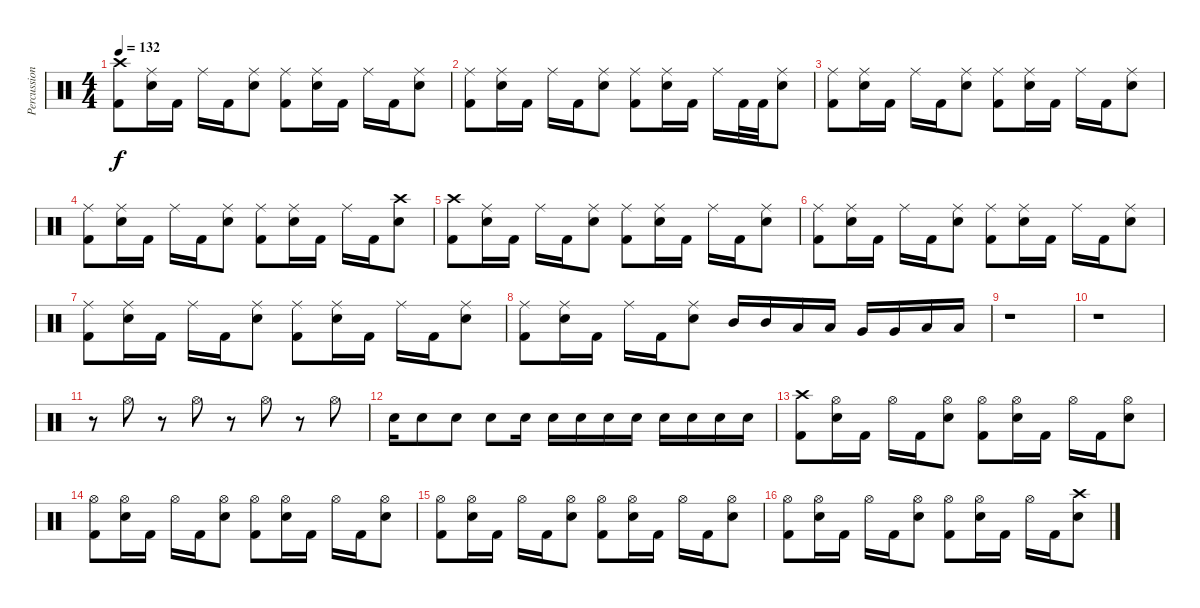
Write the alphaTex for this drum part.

\track ("Percussion" "Percussion") {instrument percussion}
\staff {score}
\articulation defaults
\ts (4 4)
\tempo 132
\clef neutral
\ks c
("Crash high (hit)" "Kick (hit) 2").8{dy f} ("Ride (middle)" "Snare (hit) 2").16 "Kick (hit) 2".16 "Ride (middle)".16 "Kick (hit) 2".16 ("Ride (middle)" "Snare (hit) 2").8 ("Ride (middle)" "Kick (hit) 2").8 ("Ride (middle)" "Snare (hit) 2").16 "Kick (hit) 2".16 "Ride (middle)".16 "Kick (hit) 2".16 ("Ride (middle)" "Snare (hit) 2").8 |
("Ride (middle)" "Kick (hit) 2").8 ("Ride (middle)" "Snare (hit) 2").16 "Kick (hit) 2".16 "Ride (middle)".16 "Kick (hit) 2".16 ("Ride (middle)" "Snare (hit) 2").8 ("Ride (middle)" "Kick (hit) 2").8 ("Ride (middle)" "Snare (hit) 2").16 "Kick (hit) 2".16 "Ride (middle)".16 "Kick (hit) 2".32 "Kick (hit) 2".32 ("Ride (middle)" "Snare (hit) 2").8 |
("Ride (middle)" "Kick (hit) 2").8 ("Ride (middle)" "Snare (hit) 2").16 "Kick (hit) 2".16 "Ride (middle)".16 "Kick (hit) 2".16 ("Ride (middle)" "Snare (hit) 2").8 ("Ride (middle)" "Kick (hit) 2").8 ("Ride (middle)" "Snare (hit) 2").16 "Kick (hit) 2".16 "Ride (middle)".16 "Kick (hit) 2".16 ("Ride (middle)" "Snare (hit) 2").8 |
("Ride (middle)" "Kick (hit) 2").8 ("Ride (middle)" "Snare (hit) 2").16 "Kick (hit) 2".16 "Ride (middle)".16 "Kick (hit) 2".16 ("Ride (middle)" "Snare (hit) 2").8 ("Ride (middle)" "Kick (hit) 2").8 ("Ride (middle)" "Snare (hit) 2").16 "Kick (hit) 2".16 "Ride (middle)".16 "Kick (hit) 2".16 ("Crash high (hit)" "Snare (hit) 2").8 |
("Crash high (hit)" "Kick (hit) 2").8 ("Ride (middle)" "Snare (hit) 2").16 "Kick (hit) 2".16 "Ride (middle)".16 "Kick (hit) 2".16 ("Ride (middle)" "Snare (hit) 2").8 ("Ride (middle)" "Kick (hit) 2").8 ("Ride (middle)" "Snare (hit) 2").16 "Kick (hit) 2".16 "Ride (middle)".16 "Kick (hit) 2".16 ("Ride (middle)" "Snare (hit) 2").8 |
("Ride (middle)" "Kick (hit) 2").8 ("Ride (middle)" "Snare (hit) 2").16 "Kick (hit) 2".16 "Ride (middle)".16 "Kick (hit) 2".16 ("Ride (middle)" "Snare (hit) 2").8 ("Ride (middle)" "Kick (hit) 2").8 ("Ride (middle)" "Snare (hit) 2").16 "Kick (hit) 2".16 "Ride (middle)".16 "Kick (hit) 2".16 ("Ride (middle)" "Snare (hit) 2").8 |
("Ride (middle)" "Kick (hit) 2").8 ("Ride (middle)" "Snare (hit) 2").16 "Kick (hit) 2".16 "Ride (middle)".16 "Kick (hit) 2".16 ("Ride (middle)" "Snare (hit) 2").8 ("Ride (middle)" "Kick (hit) 2").8 ("Ride (middle)" "Snare (hit) 2").16 "Kick (hit) 2".16 "Ride (middle)".16 "Kick (hit) 2".16 ("Ride (middle)" "Snare (hit) 2").8 |
("Ride (middle)" "Kick (hit) 2").8 ("Ride (middle)" "Snare (hit) 2").16 "Kick (hit) 2".16 "Ride (middle)".16 "Kick (hit) 2".16 ("Ride (middle)" "Snare (hit) 2").8 "Mid Tom (hit)".16 "Mid Tom (hit)".16 "Low Tom (hit)".16 "Low Tom (hit)".16 "Very Low Tom (hit)".16 "Very Low Tom (hit)".16 "Low Floor Tom (hit)".16 "Low Floor Tom (hit)".16 |
r.1 |
r.1 |
r.8 "Hi-Hat (open)".8 r.8 "Hi-Hat (open)".8 r.8 "Hi-Hat (open)".8 r.8 "Hi-Hat (open)".8 |
"Snare (hit) 2".16 "Snare (hit) 2".8 "Snare (hit) 2".8 "Snare (hit) 2".8 "Snare (hit) 2".16 "Snare (hit) 2".16 "Snare (hit) 2".16 "Snare (hit) 2".16 "Snare (hit) 2".16 "Snare (hit) 2".16 "Snare (hit) 2".16 "Snare (hit) 2".16 "Snare (hit) 2".16 |
("Crash high (hit)" "Kick (hit) 2").8 ("Hi-Hat (open)" "Snare (hit) 2").16 "Kick (hit) 2".16 "Hi-Hat (open)".16 "Kick (hit) 2".16 ("Hi-Hat (open)" "Snare (hit) 2").8 ("Hi-Hat (open)" "Kick (hit) 2").8 ("Hi-Hat (open)" "Snare (hit) 2").16 "Kick (hit) 2".16 "Hi-Hat (open)".16 "Kick (hit) 2".16 ("Hi-Hat (open)" "Snare (hit) 2").8 |
("Hi-Hat (open)" "Kick (hit) 2").8 ("Hi-Hat (open)" "Snare (hit) 2").16 "Kick (hit) 2".16 "Hi-Hat (open)".16 "Kick (hit) 2".16 ("Hi-Hat (open)" "Snare (hit) 2").8 ("Hi-Hat (open)" "Kick (hit) 2").8 ("Hi-Hat (open)" "Snare (hit) 2").16 "Kick (hit) 2".16 "Hi-Hat (open)".16 "Kick (hit) 2".16 ("Hi-Hat (open)" "Snare (hit) 2").8 |
("Hi-Hat (open)" "Kick (hit) 2").8 ("Hi-Hat (open)" "Snare (hit) 2").16 "Kick (hit) 2".16 "Hi-Hat (open)".16 "Kick (hit) 2".16 ("Hi-Hat (open)" "Snare (hit) 2").8 ("Hi-Hat (open)" "Kick (hit) 2").8 ("Hi-Hat (open)" "Snare (hit) 2").16 "Kick (hit) 2".16 "Hi-Hat (open)".16 "Kick (hit) 2".16 ("Hi-Hat (open)" "Snare (hit) 2").8 |
("Hi-Hat (open)" "Kick (hit) 2").8 ("Hi-Hat (open)" "Snare (hit) 2").16 "Kick (hit) 2".16 "Hi-Hat (open)".16 "Kick (hit) 2".16 ("Hi-Hat (open)" "Snare (hit) 2").8 ("Hi-Hat (open)" "Kick (hit) 2").8 ("Hi-Hat (open)" "Snare (hit) 2").16 "Kick (hit) 2".16 "Hi-Hat (open)".16 "Kick (hit) 2".16 ("Crash high (hit)" "Snare (hit) 2").8
